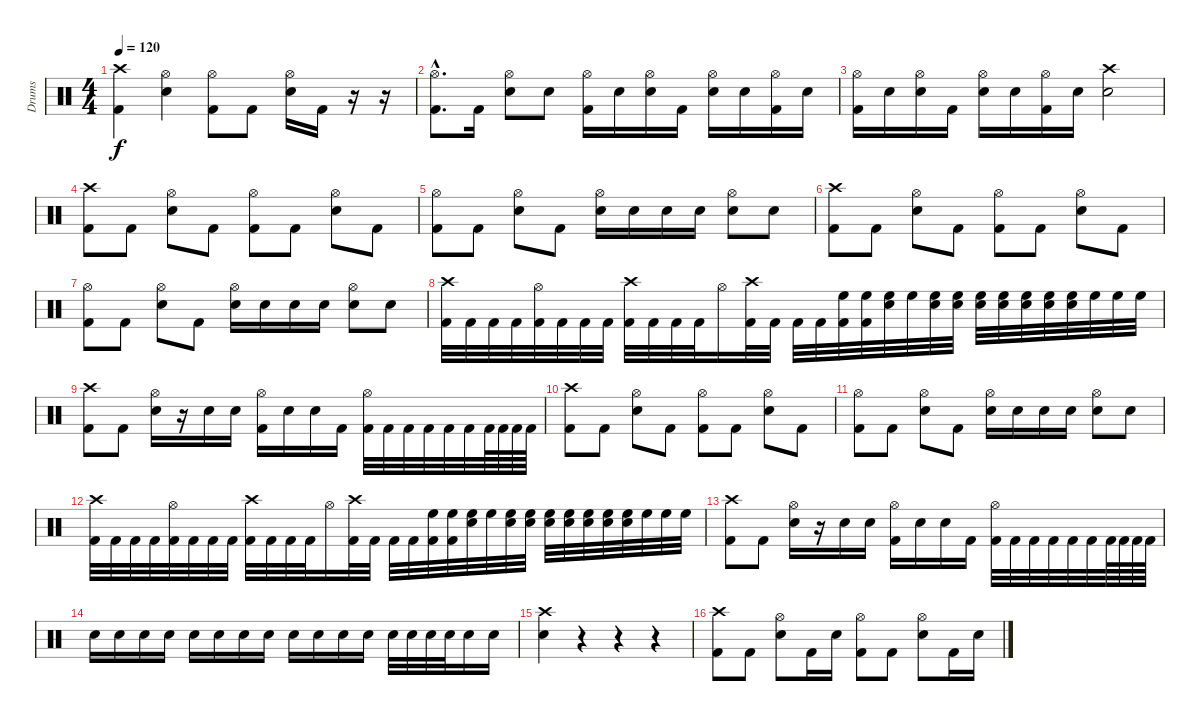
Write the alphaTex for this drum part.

\track ("Drums" "Drums") {instrument percussion}
\staff {score}
\articulation defaults
\ts (4 4)
\tempo 120
\clef neutral
\ks c
("Kick (hit) 2" "Crash high (hit)").4{dy f} ("Hi-Hat (open)" "Electric Snare (hit)").4 ("Hi-Hat (open)" "Kick (hit) 2").8 "Kick (hit) 2".8 ("Hi-Hat (open)" "Electric Snare (hit)").16 "Kick (hit) 2".16 r.16 r.16 |
("Hi-Hat (open)"{hac} "Kick (hit) 2"{hac}).8{d} "Kick (hit) 2".16 ("Hi-Hat (open)" "Electric Snare (hit)").8 "Electric Snare (hit)".8 ("Hi-Hat (open)" "Kick (hit) 2").16 "Electric Snare (hit)".16 ("Hi-Hat (open)" "Electric Snare (hit)").16 "Kick (hit) 2".16 ("Hi-Hat (open)" "Electric Snare (hit)").16 "Electric Snare (hit)".16 ("Hi-Hat (open)" "Kick (hit) 2").16 "Electric Snare (hit)".16 |
("Hi-Hat (open)" "Kick (hit) 2").16 "Electric Snare (hit)".16 ("Hi-Hat (open)" "Electric Snare (hit)").16 "Kick (hit) 2".16 ("Hi-Hat (open)" "Electric Snare (hit)").16 "Electric Snare (hit)".16 ("Hi-Hat (open)" "Kick (hit) 2").16 "Electric Snare (hit)".16 ("Crash high (hit)" "Electric Snare (hit)").2 |
("Crash high (hit)" "Kick (hit) 2").8 "Kick (hit) 2".8 ("Hi-Hat (open)" "Electric Snare (hit)").8 "Kick (hit) 2".8 ("Hi-Hat (open)" "Kick (hit) 2").8 "Kick (hit) 2".8 ("Hi-Hat (open)" "Electric Snare (hit)").8 "Kick (hit) 2".8 |
("Hi-Hat (open)" "Kick (hit) 2").8 "Kick (hit) 2".8 ("Hi-Hat (open)" "Electric Snare (hit)").8 "Kick (hit) 2".8 ("Hi-Hat (open)" "Electric Snare (hit)").16 "Electric Snare (hit)".16 "Electric Snare (hit)".16 "Electric Snare (hit)".16 ("Hi-Hat (open)" "Electric Snare (hit)").8 "Electric Snare (hit)".8 |
("Crash high (hit)" "Kick (hit) 2").8 "Kick (hit) 2".8 ("Hi-Hat (open)" "Electric Snare (hit)").8 "Kick (hit) 2".8 ("Hi-Hat (open)" "Kick (hit) 2").8 "Kick (hit) 2".8 ("Hi-Hat (open)" "Electric Snare (hit)").8 "Kick (hit) 2".8 |
("Hi-Hat (open)" "Kick (hit) 2").8 "Kick (hit) 2".8 ("Hi-Hat (open)" "Electric Snare (hit)").8 "Kick (hit) 2".8 ("Hi-Hat (open)" "Electric Snare (hit)").16 "Electric Snare (hit)".16 "Electric Snare (hit)".16 "Electric Snare (hit)".16 ("Hi-Hat (open)" "Electric Snare (hit)").8 "Electric Snare (hit)".8 |
("Crash high (hit)" "Kick (hit) 2").32 "Kick (hit) 2".32 "Kick (hit) 2".32 "Kick (hit) 2".32 ("Hi-Hat (open)" "Kick (hit) 2").32 "Kick (hit) 2".32 "Kick (hit) 2".32 "Kick (hit) 2".32 ("Crash high (hit)" "Kick (hit) 2").32 "Kick (hit) 2".32 "Kick (hit) 2".32 "Kick (hit) 2".32 "Hi-Hat (open)".16 ("Crash high (hit)" "Kick (hit) 2").32 "Kick (hit) 2".32 "Kick (hit) 2".32 "Kick (hit) 2".32 ("High Floor Tom (hit)" "Kick (hit) 2").32 ("High Floor Tom (hit)" "Kick (hit) 2").32 ("High Floor Tom (hit)" "Electric Snare (hit)").32 "High Floor Tom (hit)".32 ("High Floor Tom (hit)" "Electric Snare (hit)").32 ("High Floor Tom (hit)" "Electric Snare (hit)").32 ("High Floor Tom (hit)" "Electric Snare (hit)").32 ("High Floor Tom (hit)" "Electric Snare (hit)").32 ("High Floor Tom (hit)" "Electric Snare (hit)").32 ("High Floor Tom (hit)" "Electric Snare (hit)").32 ("High Floor Tom (hit)" "Electric Snare (hit)").32 "High Floor Tom (hit)".32 "High Floor Tom (hit)".32 "High Floor Tom (hit)".32 |
("Crash high (hit)" "Kick (hit) 2").8 "Kick (hit) 2".8 ("Hi-Hat (open)" "Electric Snare (hit)").16 r.16 "Electric Snare (hit)".16 "Electric Snare (hit)".16 ("Hi-Hat (open)" "Kick (hit) 2").16 "Electric Snare (hit)".16 "Electric Snare (hit)".16 "Kick (hit) 2".16 ("Hi-Hat (open)" "Kick (hit) 2").32 "Kick (hit) 2".32 "Kick (hit) 2".32 "Kick (hit) 2".32 "Kick (hit) 2".32 "Kick (hit) 2".32 "Kick (hit) 2".64 "Kick (hit) 2".64 "Kick (hit) 2".64 "Kick (hit) 2".64 |
("Crash high (hit)" "Kick (hit) 2").8 "Kick (hit) 2".8 ("Hi-Hat (open)" "Electric Snare (hit)").8 "Kick (hit) 2".8 ("Hi-Hat (open)" "Kick (hit) 2").8 "Kick (hit) 2".8 ("Hi-Hat (open)" "Electric Snare (hit)").8 "Kick (hit) 2".8 |
("Hi-Hat (open)" "Kick (hit) 2").8 "Kick (hit) 2".8 ("Hi-Hat (open)" "Electric Snare (hit)").8 "Kick (hit) 2".8 ("Hi-Hat (open)" "Electric Snare (hit)").16 "Electric Snare (hit)".16 "Electric Snare (hit)".16 "Electric Snare (hit)".16 ("Hi-Hat (open)" "Electric Snare (hit)").8 "Electric Snare (hit)".8 |
("Crash high (hit)" "Kick (hit) 2").32 "Kick (hit) 2".32 "Kick (hit) 2".32 "Kick (hit) 2".32 ("Hi-Hat (open)" "Kick (hit) 2").32 "Kick (hit) 2".32 "Kick (hit) 2".32 "Kick (hit) 2".32 ("Crash high (hit)" "Kick (hit) 2").32 "Kick (hit) 2".32 "Kick (hit) 2".32 "Kick (hit) 2".32 "Hi-Hat (open)".16 ("Crash high (hit)" "Kick (hit) 2").32 "Kick (hit) 2".32 "Kick (hit) 2".32 "Kick (hit) 2".32 ("High Floor Tom (hit)" "Kick (hit) 2").32 ("High Floor Tom (hit)" "Kick (hit) 2").32 ("High Floor Tom (hit)" "Electric Snare (hit)").32 "High Floor Tom (hit)".32 ("High Floor Tom (hit)" "Electric Snare (hit)").32 ("High Floor Tom (hit)" "Electric Snare (hit)").32 ("High Floor Tom (hit)" "Electric Snare (hit)").32 ("High Floor Tom (hit)" "Electric Snare (hit)").32 ("High Floor Tom (hit)" "Electric Snare (hit)").32 ("High Floor Tom (hit)" "Electric Snare (hit)").32 ("High Floor Tom (hit)" "Electric Snare (hit)").32 "High Floor Tom (hit)".32 "High Floor Tom (hit)".32 "High Floor Tom (hit)".32 |
("Crash high (hit)" "Kick (hit) 2").8 "Kick (hit) 2".8 ("Hi-Hat (open)" "Electric Snare (hit)").16 r.16 "Electric Snare (hit)".16 "Electric Snare (hit)".16 ("Hi-Hat (open)" "Kick (hit) 2").16 "Electric Snare (hit)".16 "Electric Snare (hit)".16 "Kick (hit) 2".16 ("Hi-Hat (open)" "Kick (hit) 2").32 "Kick (hit) 2".32 "Kick (hit) 2".32 "Kick (hit) 2".32 "Kick (hit) 2".32 "Kick (hit) 2".32 "Kick (hit) 2".64 "Kick (hit) 2".64 "Kick (hit) 2".64 "Kick (hit) 2".64 |
"Electric Snare (hit)".16 "Electric Snare (hit)".16 "Electric Snare (hit)".16 "Electric Snare (hit)".16 "Electric Snare (hit)".16 "Electric Snare (hit)".16 "Electric Snare (hit)".16 "Electric Snare (hit)".16 "Electric Snare (hit)".16 "Electric Snare (hit)".16 "Electric Snare (hit)".16 "Electric Snare (hit)".16 "Electric Snare (hit)".32 "Electric Snare (hit)".32 "Electric Snare (hit)".32 "Electric Snare (hit)".32 "Electric Snare (hit)".16 "Electric Snare (hit)".16 |
("Electric Snare (hit)" "Crash high (hit)").4 r.4 r.4 r.4 |
("Crash high (hit)" "Kick (hit) 2").8 "Kick (hit) 2".8 ("Hi-Hat (open)" "Electric Snare (hit)").8 "Kick (hit) 2".16 "Electric Snare (hit)".16 ("Hi-Hat (open)" "Kick (hit) 2").8 "Kick (hit) 2".8 ("Hi-Hat (open)" "Electric Snare (hit)").8 "Kick (hit) 2".16 "Electric Snare (hit)".16
